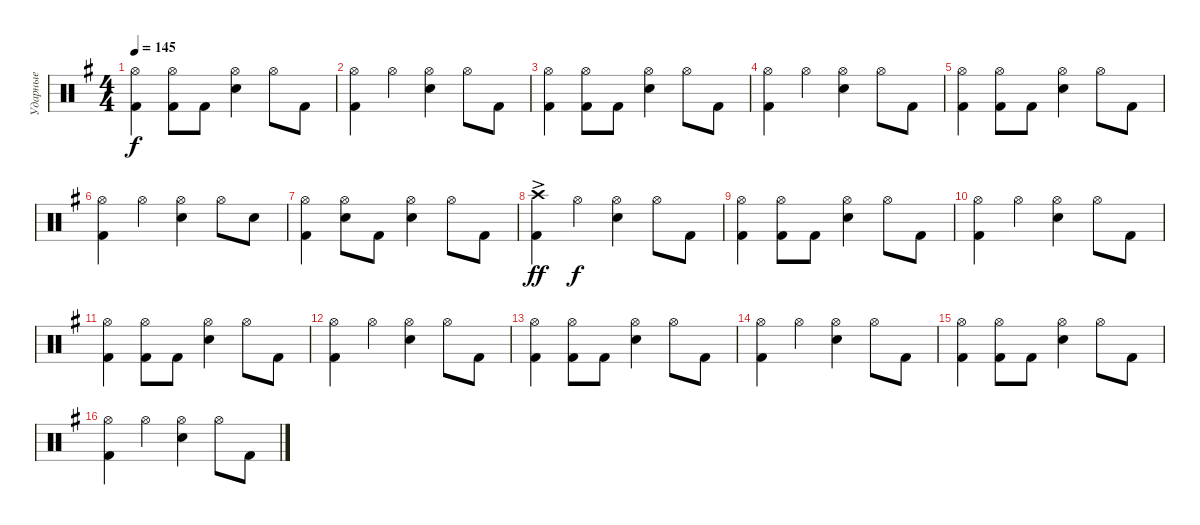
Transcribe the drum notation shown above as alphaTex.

\track ("Ударные" "Ударные") {instrument percussion}
\staff {score}
\articulation defaults
\ts (4 4)
\tempo 145
\clef neutral
\ks g
("Kick (hit) 2" "Hi-Hat (open)").4{dy f} ("Kick (hit) 2" "Hi-Hat (open)").8 "Kick (hit) 2".8 ("Snare (hit) 2" "Hi-Hat (open)").4 "Hi-Hat (open)".8 "Kick (hit) 2".8 |
("Kick (hit) 2" "Hi-Hat (open)").4 "Hi-Hat (open)".4 ("Snare (hit) 2" "Hi-Hat (open)").4 "Hi-Hat (open)".8 "Kick (hit) 2".8 |
("Kick (hit) 2" "Hi-Hat (open)").4 ("Kick (hit) 2" "Hi-Hat (open)").8 "Kick (hit) 2".8 ("Snare (hit) 2" "Hi-Hat (open)").4 "Hi-Hat (open)".8 "Kick (hit) 2".8 |
("Kick (hit) 2" "Hi-Hat (open)").4 "Hi-Hat (open)".4 ("Snare (hit) 2" "Hi-Hat (open)").4 "Hi-Hat (open)".8 "Kick (hit) 2".8 |
("Kick (hit) 2" "Hi-Hat (open)").4 ("Kick (hit) 2" "Hi-Hat (open)").8 "Kick (hit) 2".8 ("Snare (hit) 2" "Hi-Hat (open)").4 "Hi-Hat (open)".8 "Kick (hit) 2".8 |
("Kick (hit) 2" "Hi-Hat (open)").4 "Hi-Hat (open)".4 ("Snare (hit) 2" "Hi-Hat (open)").4 "Hi-Hat (open)".8 "Snare (hit) 2".8 |
("Kick (hit) 2" "Hi-Hat (open)").4 ("Snare (hit) 2" "Hi-Hat (open)").8 "Kick (hit) 2".8 ("Snare (hit) 2" "Hi-Hat (open)").4 "Hi-Hat (open)".8 "Kick (hit) 2".8 |
("Kick (hit) 2" "Crash high (hit)"{ac}).4{dy ff} "Hi-Hat (open)".4{dy f} ("Snare (hit) 2" "Hi-Hat (open)").4 "Hi-Hat (open)".8 "Kick (hit) 2".8 |
("Kick (hit) 2" "Hi-Hat (open)").4 ("Kick (hit) 2" "Hi-Hat (open)").8 "Kick (hit) 2".8 ("Snare (hit) 2" "Hi-Hat (open)").4 "Hi-Hat (open)".8 "Kick (hit) 2".8 |
("Kick (hit) 2" "Hi-Hat (open)").4 "Hi-Hat (open)".4 ("Snare (hit) 2" "Hi-Hat (open)").4 "Hi-Hat (open)".8 "Kick (hit) 2".8 |
("Kick (hit) 2" "Hi-Hat (open)").4 ("Kick (hit) 2" "Hi-Hat (open)").8 "Kick (hit) 2".8 ("Snare (hit) 2" "Hi-Hat (open)").4 "Hi-Hat (open)".8 "Kick (hit) 2".8 |
("Kick (hit) 2" "Hi-Hat (open)").4 "Hi-Hat (open)".4 ("Snare (hit) 2" "Hi-Hat (open)").4 "Hi-Hat (open)".8 "Kick (hit) 2".8 |
("Kick (hit) 2" "Hi-Hat (open)").4 ("Kick (hit) 2" "Hi-Hat (open)").8 "Kick (hit) 2".8 ("Snare (hit) 2" "Hi-Hat (open)").4 "Hi-Hat (open)".8 "Kick (hit) 2".8 |
("Kick (hit) 2" "Hi-Hat (open)").4 "Hi-Hat (open)".4 ("Snare (hit) 2" "Hi-Hat (open)").4 "Hi-Hat (open)".8 "Kick (hit) 2".8 |
("Kick (hit) 2" "Hi-Hat (open)").4 ("Kick (hit) 2" "Hi-Hat (open)").8 "Kick (hit) 2".8 ("Snare (hit) 2" "Hi-Hat (open)").4 "Hi-Hat (open)".8 "Kick (hit) 2".8 |
("Kick (hit) 2" "Hi-Hat (open)").4 "Hi-Hat (open)".4 ("Snare (hit) 2" "Hi-Hat (open)").4 "Hi-Hat (open)".8 "Kick (hit) 2".8
